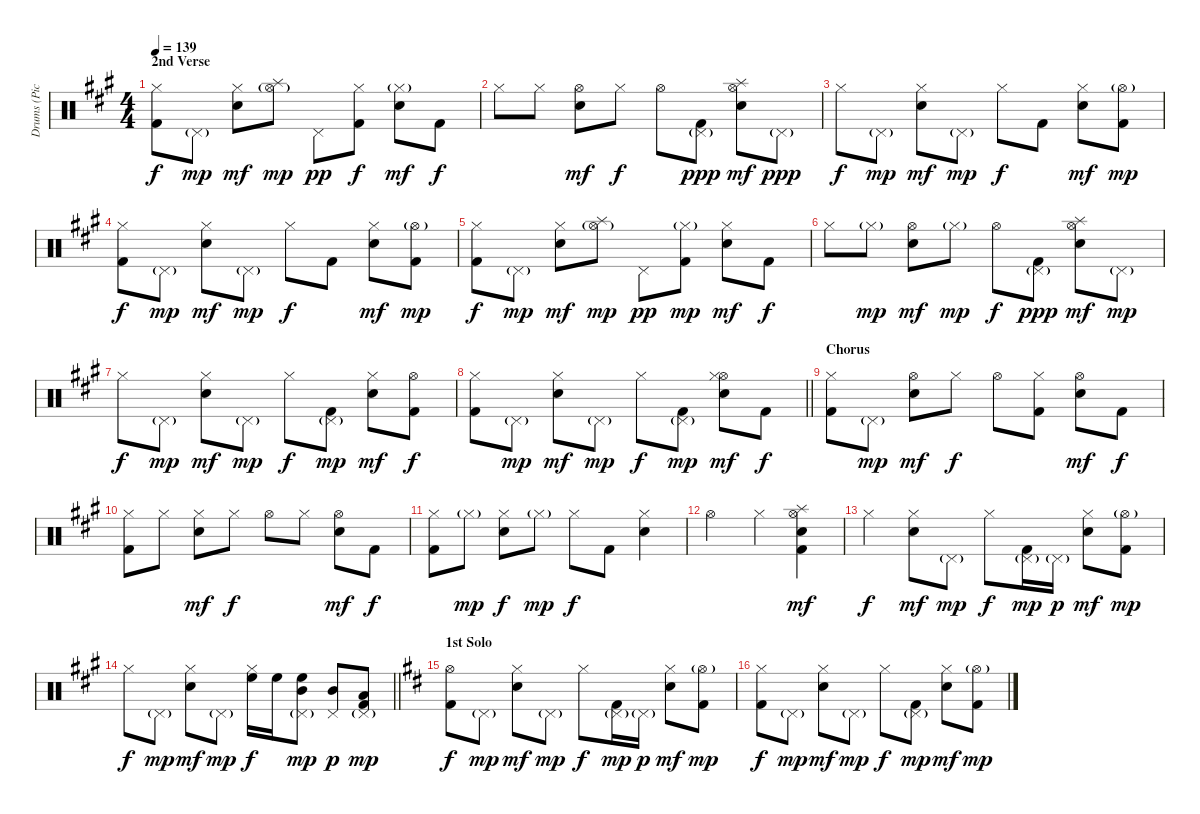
\track ("Drums (Pick)" "Drums (Pic") {instrument percussion}
\staff {score}
\articulation defaults
\ts (4 4)
\section ("" "2nd Verse")
\tempo 139
\clef neutral
\ks a
("Hi-Hat (closed)" "Kick (hit) 2").8{dy f} "Pedal Hi-Hat (hit)"{g}.8{dy mp} ("Snare (hit) 2" "Hi-Hat (closed)").8{dy mf} ("Splash (hit)" "Hi-Hat (open)"{g}).8{dy mp} "Pedal Hi-Hat (hit)".8{dy pp} ("Kick (hit) 2" "Hi-Hat (closed)").8{dy f} ("Hi-Hat (closed)"{g} "Snare (hit) 2").8{dy mf} "Kick (hit) 2".8{dy f} |
"Hi-Hat (closed)".8 "Hi-Hat (closed)".8 ("Hi-Hat (open)" "Snare (hit) 2").8{dy mf} "Hi-Hat (closed)".8{dy f} "Hi-Hat (open)".8 ("Kick (hit) 2" "Pedal Hi-Hat (hit)"{g}).8{dy ppp} ("Splash (hit)" "Snare (hit) 2" "Hi-Hat (open)").8{dy mf} "Pedal Hi-Hat (hit)"{g}.8{dy ppp} |
"Hi-Hat (closed)".8{dy f} "Pedal Hi-Hat (hit)"{g}.8{dy mp} ("Hi-Hat (closed)" "Snare (hit) 2").8{dy mf} "Pedal Hi-Hat (hit)"{g}.8{dy mp} "Hi-Hat (closed)".8{dy f} "Kick (hit) 2".8 ("Hi-Hat (closed)" "Snare (hit) 2").8{dy mf} ("Kick (hit) 2" "Hi-Hat (open)"{g}).8{dy mp} |
("Kick (hit) 2" "Hi-Hat (closed)").8{dy f} "Pedal Hi-Hat (hit)"{g}.8{dy mp} ("Snare (hit) 2" "Hi-Hat (closed)").8{dy mf} "Pedal Hi-Hat (hit)"{g}.8{dy mp} "Hi-Hat (closed)".8{dy f} "Kick (hit) 2".8 ("Snare (hit) 2" "Hi-Hat (closed)").8{dy mf} ("Kick (hit) 2" "Hi-Hat (open)"{g}).8{dy mp} |
("Hi-Hat (closed)" "Kick (hit) 2").8{dy f} "Pedal Hi-Hat (hit)"{g}.8{dy mp} ("Snare (hit) 2" "Hi-Hat (closed)").8{dy mf} ("Splash (hit)" "Hi-Hat (open)"{g}).8{dy mp} "Pedal Hi-Hat (hit)".8{dy pp} ("Hi-Hat (closed)"{g} "Kick (hit) 2").8{dy mp} ("Hi-Hat (closed)" "Snare (hit) 2").8{dy mf} "Kick (hit) 2".8{dy f} |
"Hi-Hat (closed)".8 "Hi-Hat (closed)"{g}.8{dy mp} ("Hi-Hat (open)" "Snare (hit) 2").8{dy mf} "Hi-Hat (closed)"{g}.8{dy mp} "Hi-Hat (open)".8{dy f} ("Kick (hit) 2" "Pedal Hi-Hat (hit)"{g}).8{dy ppp} ("Hi-Hat (open)" "Snare (hit) 2" "Splash (hit)").8{dy mf} "Pedal Hi-Hat (hit)"{g}.8{dy mp} |
"Hi-Hat (closed)".8{dy f} "Pedal Hi-Hat (hit)"{g}.8{dy mp} ("Snare (hit) 2" "Hi-Hat (closed)").8{dy mf} "Pedal Hi-Hat (hit)"{g}.8{dy mp} "Hi-Hat (closed)".8{dy f} ("Pedal Hi-Hat (hit)"{g} "Kick (hit) 2").8{dy mp} ("Hi-Hat (closed)" "Snare (hit) 2").8{dy mf} ("Kick (hit) 2" "Hi-Hat (open)").8{dy f} |
\barLineRight lightlight
("Hi-Hat (closed)" "Kick (hit) 2").8 "Pedal Hi-Hat (hit)"{g}.8{dy mp} ("Snare (hit) 2" "Hi-Hat (closed)").8{dy mf} "Pedal Hi-Hat (hit)"{g}.8{dy mp} "Hi-Hat (closed)".8{dy f} ("Kick (hit) 2" "Pedal Hi-Hat (hit)"{g}).8{dy mp} ("Snare (hit) 2" "Hi-Hat (open)" "Hi-Hat (closed)").8{dy mf} "Kick (hit) 2".8{dy f} |
\section ("" "Chorus")
("Hi-Hat (closed)" "Kick (hit) 2").8 "Pedal Hi-Hat (hit)"{g}.8{dy mp} ("Hi-Hat (open)" "Snare (hit) 2").8{dy mf} "Hi-Hat (closed)".8{dy f} "Hi-Hat (open)".8 ("Kick (hit) 2" "Hi-Hat (closed)").8 ("Hi-Hat (open)" "Snare (hit) 2").8{dy mf} "Kick (hit) 2".8{dy f} |
("Kick (hit) 2" "Hi-Hat (closed)").8 "Hi-Hat (closed)".8 ("Hi-Hat (closed)" "Snare (hit) 2").8{dy mf} "Hi-Hat (closed)".8{dy f} "Hi-Hat (open)".8 "Hi-Hat (closed)".8 ("Snare (hit) 2" "Hi-Hat (open)").8{dy mf} "Kick (hit) 2".8{dy f} |
("Kick (hit) 2" "Hi-Hat (closed)").8 "Hi-Hat (closed)"{g}.8{dy mp} ("Hi-Hat (closed)" "Snare (hit) 2").8{dy f} "Hi-Hat (closed)"{g}.8{dy mp} "Hi-Hat (closed)".8{dy f} "Kick (hit) 2".8 ("Hi-Hat (closed)" "Snare (hit) 2").4 |
"Hi-Hat (open)".2 "Hi-Hat (closed)".4 ("Hi-Hat (open)" "Splash (hit)" "Snare (hit) 2" "Kick (hit) 2").4{dy mf} |
"Hi-Hat (closed)".4{dy f} ("Hi-Hat (closed)" "Snare (hit) 2").8{dy mf} "Pedal Hi-Hat (hit)"{g}.8{dy mp} "Hi-Hat (closed)".8{dy f} ("Kick (hit) 2" "Pedal Hi-Hat (hit)"{g}).16{dy mp} "Pedal Hi-Hat (hit)"{g}.16{dy p} ("Snare (hit) 2" "Hi-Hat (closed)").8{dy mf} ("Kick (hit) 2" "Hi-Hat (open)"{g}).8{dy mp} |
\barLineRight lightlight "Hi-Hat (closed)".8{dy f} "Pedal Hi-Hat (hit)"{g}.8{dy mp}
("Snare (hit) 2" "Hi-Hat (closed)").8{dy mf} "Pedal Hi-Hat (hit)"{g}.8{dy mp} ("High Floor Tom (hit)" "Hi-Hat (closed)").16{dy f} "High Floor Tom (hit)".16 ("Pedal Hi-Hat (hit)"{g} "Mid Tom (hit)" "High Floor Tom (hit)").8{dy mp} ("Mid Tom (hit)" "Pedal Hi-Hat (hit)").8{dy p} ("Low Tom (hit)" "Pedal Hi-Hat (hit)"{g} "Kick (hit) 2").8{dy mp} |
\section ("" "1st Solo")
\ks d
("Kick (hit) 2" "Hi-Hat (open)").8{dy f} "Pedal Hi-Hat (hit)"{g}.8{dy mp} ("Snare (hit) 2" "Hi-Hat (closed)").8{dy mf} "Pedal Hi-Hat (hit)"{g}.8{dy mp} "Hi-Hat (closed)".8{dy f} ("Kick (hit) 2" "Pedal Hi-Hat (hit)"{g}).16{dy mp} "Pedal Hi-Hat (hit)"{g}.16{dy p} ("Hi-Hat (closed)" "Snare (hit) 2").8{dy mf} ("Kick (hit) 2" "Hi-Hat (open)"{g}).8{dy mp} |
("Hi-Hat (closed)" "Kick (hit) 2").8{dy f} "Pedal Hi-Hat (hit)"{g}.8{dy mp} ("Hi-Hat (closed)" "Snare (hit) 2").8{dy mf} "Pedal Hi-Hat (hit)"{g}.8{dy mp} "Hi-Hat (closed)".8{dy f} ("Pedal Hi-Hat (hit)"{g} "Kick (hit) 2").8{dy mp} ("Snare (hit) 2" "Hi-Hat (closed)").8{dy mf} ("Hi-Hat (open)"{g} "Kick (hit) 2").8{dy mp}
